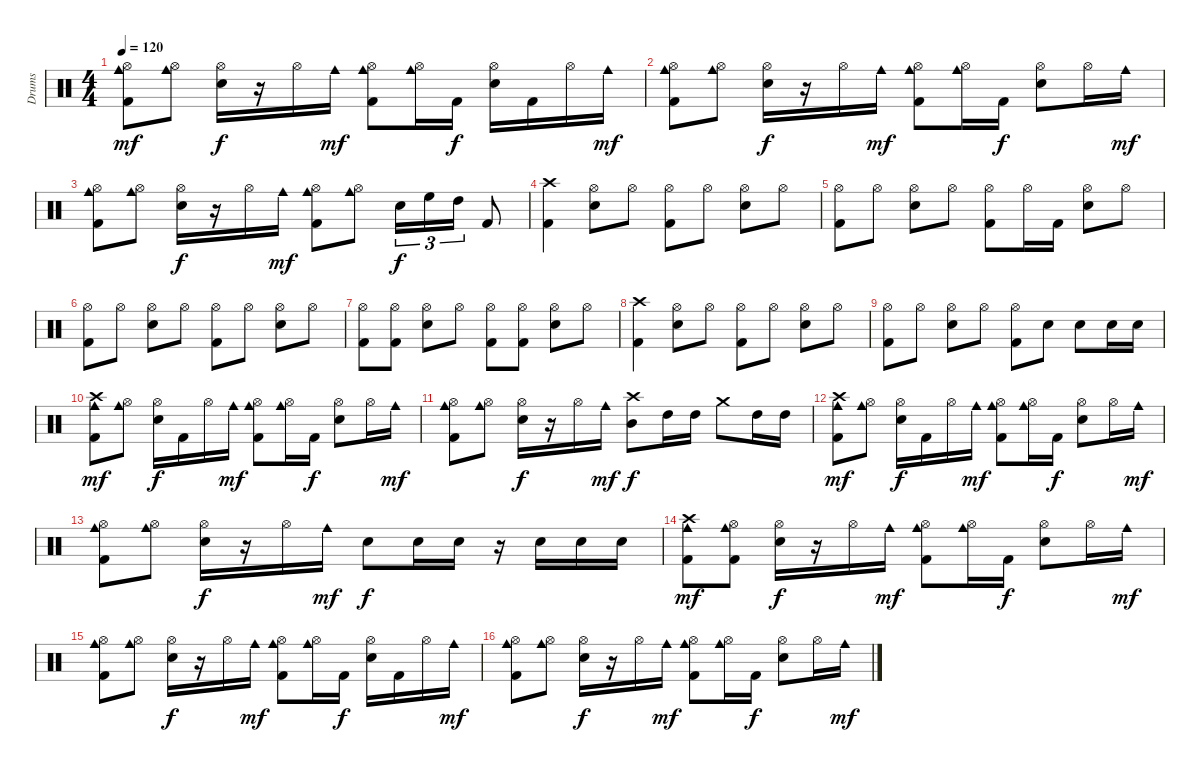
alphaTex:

\track ("Drums" "Drums") {instrument percussion}
\staff {score}
\articulation defaults
\ts (4 4)
\tempo 120
\clef neutral
\ks c
("Kick (hit) 2" "Hi-Hat (open)" "Cowbell medium (hit)").8{dy mf} ("Hi-Hat (open)" "Cowbell medium (hit)").8 ("Snare (hit) 2" "Hi-Hat (open)").16{dy f} r.16 "Hi-Hat (open)".16 "Cowbell medium (hit)".16{dy mf} ("Kick (hit) 2" "Hi-Hat (open)" "Cowbell medium (hit)").8 ("Hi-Hat (open)" "Cowbell medium (hit)").16 "Kick (hit) 2".16{dy f} ("Snare (hit) 2" "Hi-Hat (open)").16 "Kick (hit) 2".16 "Hi-Hat (open)".16 "Cowbell medium (hit)".16{dy mf} |
("Kick (hit) 2" "Hi-Hat (open)" "Cowbell medium (hit)").8 ("Hi-Hat (open)" "Cowbell medium (hit)").8 ("Snare (hit) 2" "Hi-Hat (open)").16{dy f} r.16 "Hi-Hat (open)".16 "Cowbell medium (hit)".16{dy mf} ("Kick (hit) 2" "Hi-Hat (open)" "Cowbell medium (hit)").8 ("Hi-Hat (open)" "Cowbell medium (hit)").16 "Kick (hit) 2".16{dy f} ("Snare (hit) 2" "Hi-Hat (open)").8 "Hi-Hat (open)".16 "Cowbell medium (hit)".16{dy mf} |
("Kick (hit) 2" "Hi-Hat (open)" "Cowbell medium (hit)").8 ("Hi-Hat (open)" "Cowbell medium (hit)").8 ("Snare (hit) 2" "Hi-Hat (open)").16{dy f} r.16 "Hi-Hat (open)".16 "Cowbell medium (hit)".16{dy mf} ("Kick (hit) 2" "Hi-Hat (open)" "Cowbell medium (hit)").8 ("Hi-Hat (open)" "Cowbell medium (hit)").8 "Snare (hit) 2".16{tu (3 2) dy f} "High Floor Tom (hit)".16{tu (3 2)} "High Tom (hit)".16{tu (3 2)} "Kick (hit) 2".8 |
("Kick (hit) 2" "Crash high (hit)").4 ("Snare (hit) 2" "Hi-Hat (open)").8 "Hi-Hat (open)".8 ("Kick (hit) 2" "Hi-Hat (open)").8 "Hi-Hat (open)".8 ("Snare (hit) 2" "Hi-Hat (open)").8 "Hi-Hat (open)".8 |
("Kick (hit) 2" "Hi-Hat (open)").8 "Hi-Hat (open)".8 ("Snare (hit) 2" "Hi-Hat (open)").8 "Hi-Hat (open)".8 ("Kick (hit) 2" "Hi-Hat (open)").8 "Hi-Hat (open)".16 "Kick (hit) 2".16 ("Snare (hit) 2" "Hi-Hat (open)").8 "Hi-Hat (open)".8 |
("Kick (hit) 2" "Hi-Hat (open)").8 "Hi-Hat (open)".8 ("Snare (hit) 2" "Hi-Hat (open)").8 "Hi-Hat (open)".8 ("Kick (hit) 2" "Hi-Hat (open)").8 "Hi-Hat (open)".8 ("Snare (hit) 2" "Hi-Hat (open)").8 "Hi-Hat (open)".8 |
("Kick (hit) 2" "Hi-Hat (open)").8 ("Kick (hit) 2" "Hi-Hat (open)").8 ("Snare (hit) 2" "Hi-Hat (open)").8 "Hi-Hat (open)".8 ("Kick (hit) 2" "Hi-Hat (open)").8 ("Kick (hit) 2" "Hi-Hat (open)").8 ("Snare (hit) 2" "Hi-Hat (open)").8 "Hi-Hat (open)".8 |
("Kick (hit) 2" "Crash high (hit)").4 ("Snare (hit) 2" "Hi-Hat (open)").8 "Hi-Hat (open)".8 ("Kick (hit) 2" "Hi-Hat (open)").8 "Hi-Hat (open)".8 ("Snare (hit) 2" "Hi-Hat (open)").8 "Hi-Hat (open)".8 |
("Kick (hit) 2" "Hi-Hat (open)").8 "Hi-Hat (open)".8 ("Snare (hit) 2" "Hi-Hat (open)").8 "Hi-Hat (open)".8 ("Kick (hit) 2" "Hi-Hat (open)").8 "Snare (hit) 2".8 "Snare (hit) 2".8 "Snare (hit) 2".16 "Snare (hit) 2".16 |
("Kick (hit) 2" "Crash high (hit)" "Cowbell medium (hit)").8{dy mf} ("Hi-Hat (open)" "Cowbell medium (hit)").8 ("Snare (hit) 2" "Hi-Hat (open)").16{dy f} "Kick (hit) 2".16 "Hi-Hat (open)".16 "Cowbell medium (hit)".16{dy mf} ("Kick (hit) 2" "Hi-Hat (open)" "Cowbell medium (hit)").8 ("Hi-Hat (open)" "Cowbell medium (hit)").16 "Kick (hit) 2".16{dy f} ("Snare (hit) 2" "Hi-Hat (open)").8 "Hi-Hat (open)".16 "Cowbell medium (hit)".16{dy mf} |
("Kick (hit) 2" "Hi-Hat (open)" "Cowbell medium (hit)").8 ("Hi-Hat (open)" "Cowbell medium (hit)").8 ("Snare (hit) 2" "Hi-Hat (open)").16{dy f} r.16 "Hi-Hat (open)".16 "Cowbell medium (hit)".16{dy mf} ("Crash high (hit)" "Mid Tom (hit)").8{dy f} "High Tom (hit)".16 "High Tom (hit)".16 "Crash medium (hit)".8 "High Tom (hit)".16 "High Tom (hit)".16 |
("Kick (hit) 2" "Crash high (hit)" "Cowbell medium (hit)").8{dy mf} ("Hi-Hat (open)" "Cowbell medium (hit)").8 ("Snare (hit) 2" "Hi-Hat (open)").16{dy f} "Kick (hit) 2".16 "Hi-Hat (open)".16 "Cowbell medium (hit)".16{dy mf} ("Kick (hit) 2" "Hi-Hat (open)" "Cowbell medium (hit)").8 ("Hi-Hat (open)" "Cowbell medium (hit)").16 "Kick (hit) 2".16{dy f} ("Snare (hit) 2" "Hi-Hat (open)").8 "Hi-Hat (open)".16 "Cowbell medium (hit)".16{dy mf} |
("Kick (hit) 2" "Hi-Hat (open)" "Cowbell medium (hit)").8 ("Hi-Hat (open)" "Cowbell medium (hit)").8 ("Snare (hit) 2" "Hi-Hat (open)").16{dy f} r.16 "Hi-Hat (open)".16 "Cowbell medium (hit)".16{dy mf} "Snare (hit) 2".8{dy f} "Snare (hit) 2".16 "Snare (hit) 2".16 r.16 "Snare (hit) 2".16 "Snare (hit) 2".16 "Snare (hit) 2".16 |
("Kick (hit) 2" "Crash high (hit)" "Cowbell medium (hit)").8{dy mf} ("Kick (hit) 2" "Hi-Hat (open)" "Cowbell medium (hit)").8 ("Snare (hit) 2" "Hi-Hat (open)").16{dy f} r.16 "Hi-Hat (open)".16 "Cowbell medium (hit)".16{dy mf} ("Kick (hit) 2" "Hi-Hat (open)" "Cowbell medium (hit)").8 ("Hi-Hat (open)" "Cowbell medium (hit)").16 "Kick (hit) 2".16{dy f} ("Snare (hit) 2" "Hi-Hat (open)").8 "Hi-Hat (open)".16 "Cowbell medium (hit)".16{dy mf} |
("Kick (hit) 2" "Hi-Hat (open)" "Cowbell medium (hit)").8 ("Hi-Hat (open)" "Cowbell medium (hit)").8 ("Snare (hit) 2" "Hi-Hat (open)").16{dy f} r.16 "Hi-Hat (open)".16 "Cowbell medium (hit)".16{dy mf} ("Kick (hit) 2" "Hi-Hat (open)" "Cowbell medium (hit)").8 ("Hi-Hat (open)" "Cowbell medium (hit)").16 "Kick (hit) 2".16{dy f} ("Snare (hit) 2" "Hi-Hat (open)").16 "Kick (hit) 2".16 "Hi-Hat (open)".16 "Cowbell medium (hit)".16{dy mf} |
("Kick (hit) 2" "Hi-Hat (open)" "Cowbell medium (hit)").8 ("Hi-Hat (open)" "Cowbell medium (hit)").8 ("Snare (hit) 2" "Hi-Hat (open)").16{dy f} r.16 "Hi-Hat (open)".16 "Cowbell medium (hit)".16{dy mf} ("Kick (hit) 2" "Hi-Hat (open)" "Cowbell medium (hit)").8 ("Hi-Hat (open)" "Cowbell medium (hit)").16 "Kick (hit) 2".16{dy f} ("Snare (hit) 2" "Hi-Hat (open)").8 "Hi-Hat (open)".16 "Cowbell medium (hit)".16{dy mf}
